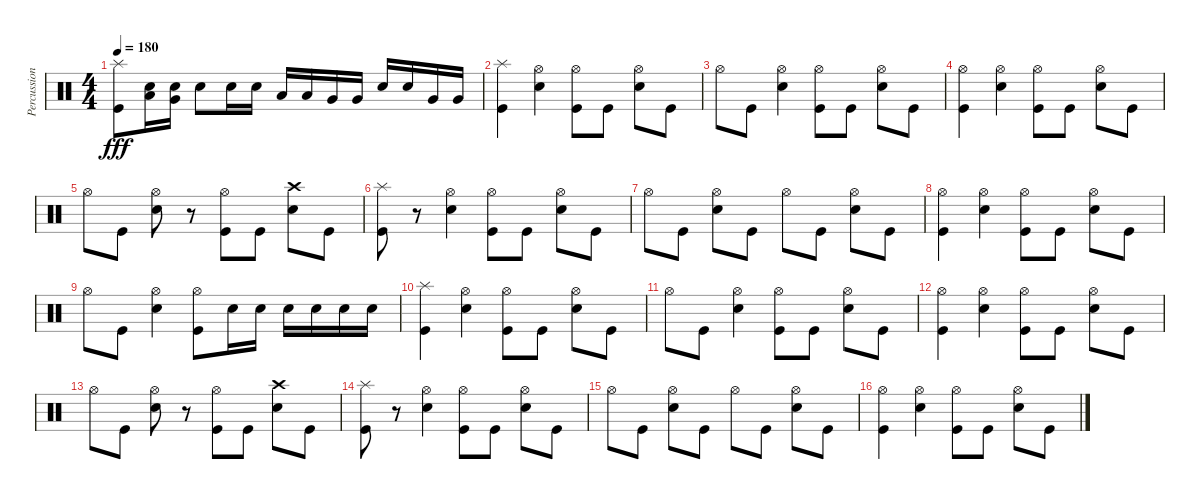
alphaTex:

\track ("Percussion" "Percussion") {instrument percussion}
\staff {score}
\articulation defaults
\ts (4 4)
\tempo 180
\clef neutral
\ks c
("Splash (hit)" "Kick (hit)").8{dy fff} ("Low Tom (hit)" "Snare (hit) 2").16 ("Very Low Tom (hit)" "Snare (hit) 2").16 "Snare (hit) 2".8 "Snare (hit) 2".16 "Snare (hit) 2".16 "Low Tom (hit)".16 "Low Tom (hit)".16 "Very Low Tom (hit)".16 "Very Low Tom (hit)".16 "Snare (hit) 2".16 "Snare (hit) 2".16 "Very Low Tom (hit)".16 "Very Low Tom (hit)".16 |
("Splash (hit)" "Kick (hit)").4 ("Hi-Hat (open)" "Snare (hit) 2").4 ("Hi-Hat (open)" "Kick (hit)").8 "Kick (hit)".8 ("Hi-Hat (open)" "Snare (hit) 2").8 "Kick (hit)".8 |
"Hi-Hat (open)".8 "Kick (hit)".8 ("Hi-Hat (open)" "Snare (hit) 2").4 ("Hi-Hat (open)" "Kick (hit)").8 "Kick (hit)".8 ("Hi-Hat (open)" "Snare (hit) 2").8 "Kick (hit)".8 |
("Hi-Hat (open)" "Kick (hit)").4 ("Hi-Hat (open)" "Snare (hit) 2").4 ("Hi-Hat (open)" "Kick (hit)").8 "Kick (hit)".8 ("Hi-Hat (open)" "Snare (hit) 2").8 "Kick (hit)".8 |
"Hi-Hat (open)".8 "Kick (hit)".8 ("Hi-Hat (open)" "Snare (hit) 2").8 r.8 ("Hi-Hat (open)" "Kick (hit)").8 "Kick (hit)".8 ("Crash high (hit)" "Snare (hit) 2").8 "Kick (hit)".8 |
("Splash (hit)" "Kick (hit)").8 r.8 ("Hi-Hat (open)" "Snare (hit) 2").4 ("Hi-Hat (open)" "Kick (hit)").8 "Kick (hit)".8 ("Hi-Hat (open)" "Snare (hit) 2").8 "Kick (hit)".8 |
"Hi-Hat (open)".8 "Kick (hit)".8 ("Hi-Hat (open)" "Snare (hit) 2").8 "Kick (hit)".8 "Hi-Hat (open)".8 "Kick (hit)".8 ("Hi-Hat (open)" "Snare (hit) 2").8 "Kick (hit)".8 |
("Hi-Hat (open)" "Kick (hit)").4 ("Hi-Hat (open)" "Snare (hit) 2").4 ("Hi-Hat (open)" "Kick (hit)").8 "Kick (hit)".8 ("Hi-Hat (open)" "Snare (hit) 2").8 "Kick (hit)".8 |
"Hi-Hat (open)".8 "Kick (hit)".8 ("Hi-Hat (open)" "Snare (hit) 2").4 ("Hi-Hat (open)" "Kick (hit)").8 "Snare (hit) 2".16 "Snare (hit) 2".16 "Snare (hit) 2".16 "Snare (hit) 2".16 "Snare (hit) 2".16 "Snare (hit) 2".16 |
("Splash (hit)" "Kick (hit)").4 ("Hi-Hat (open)" "Snare (hit) 2").4 ("Hi-Hat (open)" "Kick (hit)").8 "Kick (hit)".8 ("Hi-Hat (open)" "Snare (hit) 2").8 "Kick (hit)".8 |
"Hi-Hat (open)".8 "Kick (hit)".8 ("Hi-Hat (open)" "Snare (hit) 2").4 ("Hi-Hat (open)" "Kick (hit)").8 "Kick (hit)".8 ("Hi-Hat (open)" "Snare (hit) 2").8 "Kick (hit)".8 |
("Hi-Hat (open)" "Kick (hit)").4 ("Hi-Hat (open)" "Snare (hit) 2").4 ("Hi-Hat (open)" "Kick (hit)").8 "Kick (hit)".8 ("Hi-Hat (open)" "Snare (hit) 2").8 "Kick (hit)".8 |
"Hi-Hat (open)".8 "Kick (hit)".8 ("Hi-Hat (open)" "Snare (hit) 2").8 r.8 ("Hi-Hat (open)" "Kick (hit)").8 "Kick (hit)".8 ("Crash high (hit)" "Snare (hit) 2").8 "Kick (hit)".8 |
("Splash (hit)" "Kick (hit)").8 r.8 ("Hi-Hat (open)" "Snare (hit) 2").4 ("Hi-Hat (open)" "Kick (hit)").8 "Kick (hit)".8 ("Hi-Hat (open)" "Snare (hit) 2").8 "Kick (hit)".8 |
"Hi-Hat (open)".8 "Kick (hit)".8 ("Hi-Hat (open)" "Snare (hit) 2").8 "Kick (hit)".8 "Hi-Hat (open)".8 "Kick (hit)".8 ("Hi-Hat (open)" "Snare (hit) 2").8 "Kick (hit)".8 |
("Hi-Hat (open)" "Kick (hit)").4 ("Hi-Hat (open)" "Snare (hit) 2").4 ("Hi-Hat (open)" "Kick (hit)").8 "Kick (hit)".8 ("Hi-Hat (open)" "Snare (hit) 2").8 "Kick (hit)".8
